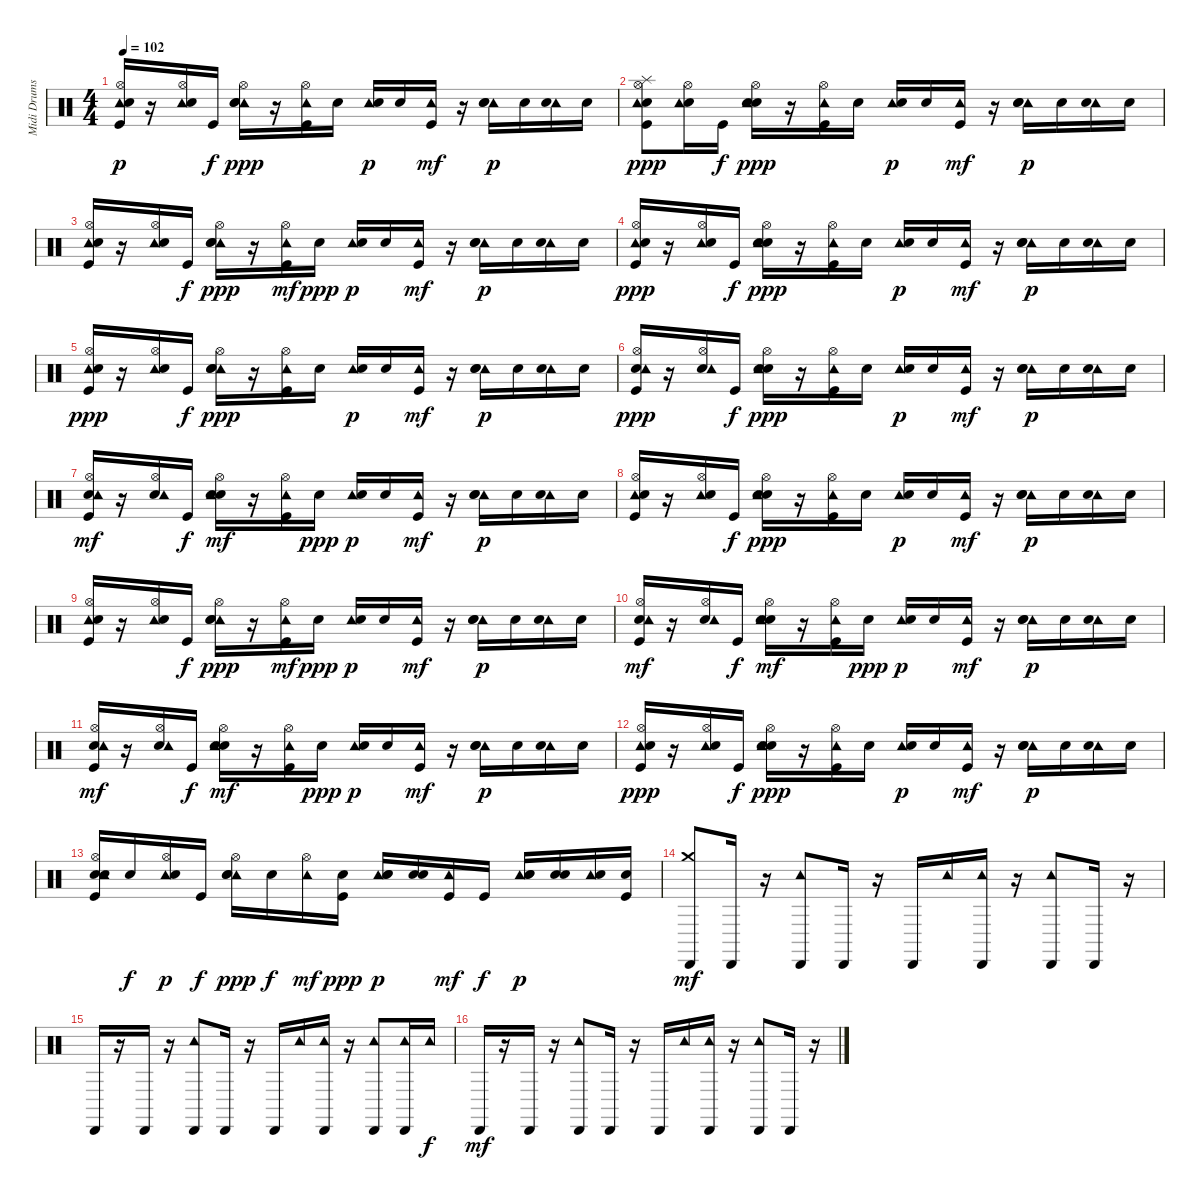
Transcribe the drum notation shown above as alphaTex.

\track ("Midi Drums" "Midi Drums") {instrument percussion}
\staff {score}
\articulation defaults
\ts (4 4)
\tempo 102
\clef neutral
\ks c
("Tambourine (hit)" "Kick (hit)" "Hi-Hat (open)" "Electric Snare (hit)").16{dy p} r.16 ("Tambourine (hit)" "Hi-Hat (open)" "Electric Snare (hit)").16 "Kick (hit)".16{dy f} ("Tambourine (hit)" "Snare (hit) 2" "Hi-Hat (open)" "Electric Snare (hit)").16{dy ppp} r.16 ("Tambourine (hit)" "Kick (hit)" "Hi-Hat (open)").16 "Electric Snare (hit)".16 ("Tambourine (hit)" "Electric Snare (hit)").16{dy p} "Electric Snare (hit)".16 ("Tambourine (hit)" "Kick (hit)").16{dy mf} r.16 ("Tambourine (hit)" "Electric Snare (hit)" "Snare (hit) 2").16{dy p} "Electric Snare (hit)".16 ("Tambourine (hit)" "Electric Snare (hit)").16 "Electric Snare (hit)".16 |
("Electric Snare (hit)" "Tambourine (hit)" "Splash (hit)" "Kick (hit)" "Hi-Hat (open)").8{dy ppp} ("Electric Snare (hit)" "Tambourine (hit)" "Hi-Hat (open)").16 "Kick (hit)".16{dy f} ("Electric Snare (hit)" "Tambourine (hit)" "Snare (hit) 2" "Hi-Hat (open)").16{dy ppp} r.16 ("Tambourine (hit)" "Kick (hit)" "Hi-Hat (open)").16 "Electric Snare (hit)".16 ("Tambourine (hit)" "Electric Snare (hit)").16{dy p} "Electric Snare (hit)".16 ("Tambourine (hit)" "Kick (hit)").16{dy mf} r.16 ("Tambourine (hit)" "Electric Snare (hit)" "Snare (hit) 2").16{dy p} "Electric Snare (hit)".16 ("Tambourine (hit)" "Electric Snare (hit)").16 "Electric Snare (hit)".16 |
("Hi-Hat (open)" "Tambourine (hit)" "Electric Snare (hit)" "Kick (hit)").16 r.16 ("Hi-Hat (open)" "Tambourine (hit)" "Electric Snare (hit)").16 "Kick (hit)".16{dy f} ("Hi-Hat (open)" "Tambourine (hit)" "Electric Snare (hit)" "Snare (hit) 2").16{dy ppp} r.16 ("Hi-Hat (open)" "Tambourine (hit)" "Kick (hit)").16{dy mf} "Electric Snare (hit)".16{dy ppp} ("Tambourine (hit)" "Electric Snare (hit)").16{dy p} "Electric Snare (hit)".16 ("Tambourine (hit)" "Kick (hit)").16{dy mf} r.16 ("Tambourine (hit)" "Electric Snare (hit)" "Snare (hit) 2").16{dy p} "Electric Snare (hit)".16 ("Tambourine (hit)" "Electric Snare (hit)").16 "Electric Snare (hit)".16 |
("Kick (hit)" "Tambourine (hit)" "Electric Snare (hit)" "Hi-Hat (open)").16{dy ppp} r.16 ("Tambourine (hit)" "Electric Snare (hit)" "Hi-Hat (open)").16 "Kick (hit)".16{dy f} ("Snare (hit) 2" "Tambourine (hit)" "Electric Snare (hit)" "Hi-Hat (open)").16{dy ppp} r.16 ("Kick (hit)" "Tambourine (hit)" "Hi-Hat (open)").16 "Electric Snare (hit)".16 ("Tambourine (hit)" "Electric Snare (hit)").16{dy p} "Electric Snare (hit)".16 ("Kick (hit)" "Tambourine (hit)").16{dy mf} r.16 ("Tambourine (hit)" "Electric Snare (hit)" "Snare (hit) 2").16{dy p} "Electric Snare (hit)".16 ("Tambourine (hit)" "Electric Snare (hit)").16 "Electric Snare (hit)".16 |
("Tambourine (hit)" "Electric Snare (hit)" "Kick (hit)" "Hi-Hat (open)").16{dy ppp} r.16 ("Tambourine (hit)" "Electric Snare (hit)" "Hi-Hat (open)").16 "Kick (hit)".16{dy f} ("Tambourine (hit)" "Electric Snare (hit)" "Snare (hit) 2" "Hi-Hat (open)").16{dy ppp} r.16 ("Tambourine (hit)" "Kick (hit)" "Hi-Hat (open)").16 "Electric Snare (hit)".16 ("Tambourine (hit)" "Electric Snare (hit)").16{dy p} "Electric Snare (hit)".16 ("Tambourine (hit)" "Kick (hit)").16{dy mf} r.16 ("Tambourine (hit)" "Electric Snare (hit)" "Snare (hit) 2").16{dy p} "Electric Snare (hit)".16 ("Tambourine (hit)" "Electric Snare (hit)").16 "Electric Snare (hit)".16 |
("Kick (hit)" "Electric Snare (hit)" "Tambourine (hit)" "Hi-Hat (open)").16{dy ppp} r.16 ("Electric Snare (hit)" "Tambourine (hit)" "Hi-Hat (open)").16 "Kick (hit)".16{dy f} ("Snare (hit) 2" "Electric Snare (hit)" "Tambourine (hit)" "Hi-Hat (open)").16{dy ppp} r.16 ("Kick (hit)" "Tambourine (hit)" "Hi-Hat (open)").16 "Electric Snare (hit)".16 ("Tambourine (hit)" "Electric Snare (hit)").16{dy p} "Electric Snare (hit)".16 ("Kick (hit)" "Tambourine (hit)").16{dy mf} r.16 ("Tambourine (hit)" "Electric Snare (hit)" "Snare (hit) 2").16{dy p} "Electric Snare (hit)".16 ("Tambourine (hit)" "Electric Snare (hit)").16 "Electric Snare (hit)".16 |
("Electric Snare (hit)" "Hi-Hat (open)" "Tambourine (hit)" "Kick (hit)").16{dy mf} r.16 ("Electric Snare (hit)" "Hi-Hat (open)" "Tambourine (hit)").16 "Kick (hit)".16{dy f} ("Electric Snare (hit)" "Hi-Hat (open)" "Tambourine (hit)" "Snare (hit) 2").16{dy mf} r.16 ("Hi-Hat (open)" "Tambourine (hit)" "Kick (hit)").16 "Electric Snare (hit)".16{dy ppp} ("Tambourine (hit)" "Electric Snare (hit)").16{dy p} "Electric Snare (hit)".16 ("Tambourine (hit)" "Kick (hit)").16{dy mf} r.16 ("Tambourine (hit)" "Electric Snare (hit)" "Snare (hit) 2").16{dy p} "Electric Snare (hit)".16 ("Tambourine (hit)" "Electric Snare (hit)").16 "Electric Snare (hit)".16 |
("Kick (hit)" "Tambourine (hit)" "Hi-Hat (open)" "Electric Snare (hit)").16 r.16 ("Tambourine (hit)" "Hi-Hat (open)" "Electric Snare (hit)").16 "Kick (hit)".16{dy f} ("Snare (hit) 2" "Tambourine (hit)" "Hi-Hat (open)" "Electric Snare (hit)").16{dy ppp} r.16 ("Kick (hit)" "Tambourine (hit)" "Hi-Hat (open)").16 "Electric Snare (hit)".16 ("Tambourine (hit)" "Electric Snare (hit)").16{dy p} "Electric Snare (hit)".16 ("Kick (hit)" "Tambourine (hit)").16{dy mf} r.16 ("Tambourine (hit)" "Electric Snare (hit)" "Snare (hit) 2").16{dy p} "Electric Snare (hit)".16 ("Tambourine (hit)" "Electric Snare (hit)").16 "Electric Snare (hit)".16 |
("Hi-Hat (open)" "Tambourine (hit)" "Electric Snare (hit)" "Kick (hit)").16 r.16 ("Hi-Hat (open)" "Tambourine (hit)" "Electric Snare (hit)").16 "Kick (hit)".16{dy f} ("Hi-Hat (open)" "Tambourine (hit)" "Electric Snare (hit)" "Snare (hit) 2").16{dy ppp} r.16 ("Hi-Hat (open)" "Tambourine (hit)" "Kick (hit)").16{dy mf} "Electric Snare (hit)".16{dy ppp} ("Tambourine (hit)" "Electric Snare (hit)").16{dy p} "Electric Snare (hit)".16 ("Tambourine (hit)" "Kick (hit)").16{dy mf} r.16 ("Tambourine (hit)" "Electric Snare (hit)" "Snare (hit) 2").16{dy p} "Electric Snare (hit)".16 ("Tambourine (hit)" "Electric Snare (hit)").16 "Electric Snare (hit)".16 |
("Electric Snare (hit)" "Hi-Hat (open)" "Kick (hit)" "Tambourine (hit)").16{dy mf} r.16 ("Electric Snare (hit)" "Hi-Hat (open)" "Tambourine (hit)").16 "Kick (hit)".16{dy f} ("Electric Snare (hit)" "Hi-Hat (open)" "Snare (hit) 2" "Tambourine (hit)").16{dy mf} r.16 ("Hi-Hat (open)" "Kick (hit)" "Tambourine (hit)").16 "Electric Snare (hit)".16{dy ppp} ("Tambourine (hit)" "Electric Snare (hit)").16{dy p} "Electric Snare (hit)".16 ("Kick (hit)" "Tambourine (hit)").16{dy mf} r.16 ("Tambourine (hit)" "Electric Snare (hit)" "Snare (hit) 2").16{dy p} "Electric Snare (hit)".16 ("Tambourine (hit)" "Electric Snare (hit)").16 "Electric Snare (hit)".16 |
("Kick (hit)" "Hi-Hat (open)" "Electric Snare (hit)" "Tambourine (hit)").16{dy mf} r.16 ("Hi-Hat (open)" "Electric Snare (hit)" "Tambourine (hit)").16 "Kick (hit)".16{dy f} ("Snare (hit) 2" "Hi-Hat (open)" "Electric Snare (hit)" "Tambourine (hit)").16{dy mf} r.16 ("Kick (hit)" "Hi-Hat (open)" "Tambourine (hit)").16 "Electric Snare (hit)".16{dy ppp} ("Tambourine (hit)" "Electric Snare (hit)").16{dy p} "Electric Snare (hit)".16 ("Kick (hit)" "Tambourine (hit)").16{dy mf} r.16 ("Tambourine (hit)" "Electric Snare (hit)" "Snare (hit) 2").16{dy p} "Electric Snare (hit)".16 ("Tambourine (hit)" "Electric Snare (hit)").16 "Electric Snare (hit)".16 |
("Kick (hit)" "Tambourine (hit)" "Electric Snare (hit)" "Hi-Hat (open)").16{dy ppp} r.16 ("Tambourine (hit)" "Electric Snare (hit)" "Hi-Hat (open)").16 "Kick (hit)".16{dy f} ("Snare (hit) 2" "Tambourine (hit)" "Electric Snare (hit)" "Hi-Hat (open)").16{dy ppp} r.16 ("Kick (hit)" "Tambourine (hit)" "Hi-Hat (open)").16 "Electric Snare (hit)".16 ("Tambourine (hit)" "Electric Snare (hit)").16{dy p} "Electric Snare (hit)".16 ("Kick (hit)" "Tambourine (hit)").16{dy mf} r.16 ("Tambourine (hit)" "Electric Snare (hit)" "Snare (hit) 2").16{dy p} "Electric Snare (hit)".16 ("Tambourine (hit)" "Electric Snare (hit)").16 "Electric Snare (hit)".16 |
("Snare (hit) 2" "Hi-Hat (open)" "Tambourine (hit)" "Kick (hit)" "Electric Snare (hit)").16 "Snare (hit) 2".16{dy f} ("Hi-Hat (open)" "Tambourine (hit)" "Electric Snare (hit)").16{dy p} "Kick (hit)".16{dy f} ("Hi-Hat (open)" "Tambourine (hit)" "Snare (hit) 2" "Electric Snare (hit)").16{dy ppp} "Snare (hit) 2".16{dy f} ("Hi-Hat (open)" "Tambourine (hit)").16{dy mf} ("Kick (hit)" "Electric Snare (hit)").16{dy ppp} ("Tambourine (hit)" "Snare (hit) 2" "Electric Snare (hit)").16{dy p} ("Snare (hit) 2" "Electric Snare (hit)").16 ("Tambourine (hit)" "Kick (hit)").16{dy mf} "Kick (hit)".16{dy f} ("Tambourine (hit)" "Snare (hit) 2" "Electric Snare (hit)").16{dy p} ("Snare (hit) 2" "Electric Snare (hit)").16 ("Tambourine (hit)" "Electric Snare (hit)").16 ("Kick (hit)" "Electric Snare (hit)").16 |
("Crash medium (hit)" "Cabasa (hit)").8{dy mf} "Cabasa (hit)".16 r.16 ("Tambourine (hit)" "Cabasa (hit)").8 "Cabasa (hit)".16 r.16 "Cabasa (hit)".16 "Tambourine (hit)".16 ("Tambourine (hit)" "Cabasa (hit)").16 r.16 ("Tambourine (hit)" "Cabasa (hit)").8 "Cabasa (hit)".16 r.16 |
"Cabasa (hit)".16 r.16 "Cabasa (hit)".16 r.16 ("Tambourine (hit)" "Cabasa (hit)").8 "Cabasa (hit)".16 r.16 "Cabasa (hit)".16 "Tambourine (hit)".16 ("Tambourine (hit)" "Cabasa (hit)").16 r.16 ("Tambourine (hit)" "Cabasa (hit)").8 ("Tambourine (hit)" "Cabasa (hit)").16 "Tambourine (hit)".16{dy f} |
"Cabasa (hit)".16{dy mf} r.16 "Cabasa (hit)".16 r.16 ("Tambourine (hit)" "Cabasa (hit)").8 "Cabasa (hit)".16 r.16 "Cabasa (hit)".16 "Tambourine (hit)".16 ("Tambourine (hit)" "Cabasa (hit)").16 r.16 ("Tambourine (hit)" "Cabasa (hit)").8 "Cabasa (hit)".16 r.16
